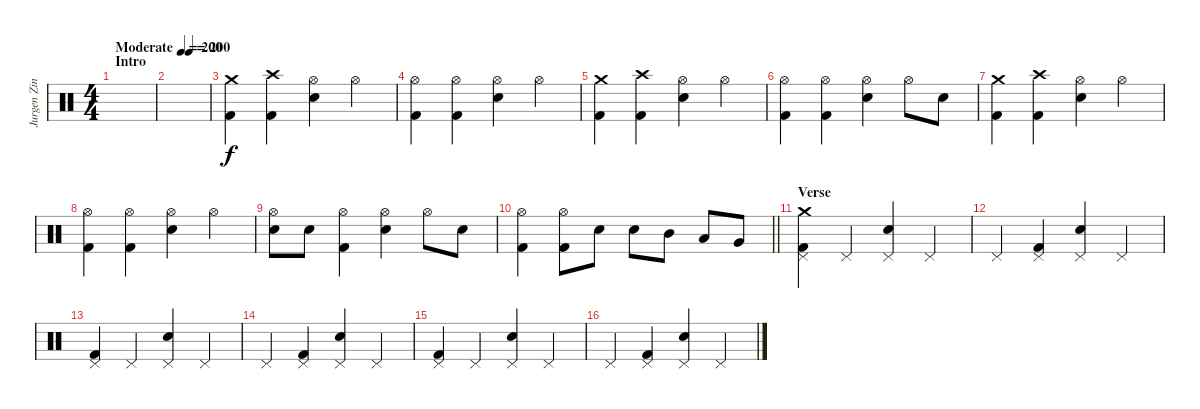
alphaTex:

\track ("Jurgen Zink" "Jurgen Zin") {instrument percussion}
\staff {score}
\articulation defaults
\ts (4 4)
\section ("" "Intro")
\tempo (200 "Moderate")
\tempo 50
\tempo (200 "Moderate")
\clef neutral
\ks c
|
\tempo (200 0.5)
|
("Crash medium (hit)" "Kick (hit) 2").4 ("Crash high (hit)" "Kick (hit) 2").4 ("Hi-Hat (open)" "Electric Snare (hit)").4 "Hi-Hat (open)".4 |
("Hi-Hat (open)" "Kick (hit) 2").4 ("Hi-Hat (open)" "Kick (hit) 2").4 ("Hi-Hat (open)" "Electric Snare (hit)").4 "Hi-Hat (open)".4 |
("Crash medium (hit)" "Kick (hit) 2").4 ("Crash high (hit)" "Kick (hit) 2").4 ("Hi-Hat (open)" "Electric Snare (hit)").4 "Hi-Hat (open)".4 |
("Hi-Hat (open)" "Kick (hit) 2").4 ("Hi-Hat (open)" "Kick (hit) 2").4 ("Hi-Hat (open)" "Electric Snare (hit)").4 "Hi-Hat (open)".8 "Electric Snare (hit)".8 |
("Crash medium (hit)" "Kick (hit) 2").4 ("Crash high (hit)" "Kick (hit) 2").4 ("Hi-Hat (open)" "Electric Snare (hit)").4 "Hi-Hat (open)".4 |
("Hi-Hat (open)" "Kick (hit) 2").4 ("Hi-Hat (open)" "Kick (hit) 2").4 ("Hi-Hat (open)" "Electric Snare (hit)").4 "Hi-Hat (open)".4 |
("Hi-Hat (open)" "Electric Snare (hit)").8 "Electric Snare (hit)".8 ("Hi-Hat (open)" "Kick (hit) 2").4 ("Hi-Hat (open)" "Electric Snare (hit)").4 "Hi-Hat (open)".8 "Electric Snare (hit)".8 |
\barLineRight lightlight
("Hi-Hat (open)" "Kick (hit) 2").4 ("Hi-Hat (open)" "Kick (hit) 2").8 "Electric Snare (hit)".8 "Electric Snare (hit)".8 "Mid Tom (hit)".8 "Low Tom (hit)".8 "Very Low Tom (hit)".8 |
\section ("" "Verse")
("Crash medium (hit)" "Pedal Hi-Hat (hit)" "Kick (hit) 2").4 "Pedal Hi-Hat (hit)".4 ("Pedal Hi-Hat (hit)" "Electric Snare (hit)").4 "Pedal Hi-Hat (hit)".4 |
"Pedal Hi-Hat (hit)".4 ("Pedal Hi-Hat (hit)" "Kick (hit) 2").4 ("Pedal Hi-Hat (hit)" "Electric Snare (hit)").4 "Pedal Hi-Hat (hit)".4 |
("Pedal Hi-Hat (hit)" "Kick (hit) 2").4 "Pedal Hi-Hat (hit)".4 ("Pedal Hi-Hat (hit)" "Electric Snare (hit)").4 "Pedal Hi-Hat (hit)".4 |
"Pedal Hi-Hat (hit)".4 ("Pedal Hi-Hat (hit)" "Kick (hit) 2").4 ("Pedal Hi-Hat (hit)" "Electric Snare (hit)").4 "Pedal Hi-Hat (hit)".4 |
("Pedal Hi-Hat (hit)" "Kick (hit) 2").4 "Pedal Hi-Hat (hit)".4 ("Pedal Hi-Hat (hit)" "Electric Snare (hit)").4 "Pedal Hi-Hat (hit)".4 |
"Pedal Hi-Hat (hit)".4 ("Pedal Hi-Hat (hit)" "Kick (hit) 2").4 ("Pedal Hi-Hat (hit)" "Electric Snare (hit)").4 "Pedal Hi-Hat (hit)".4
